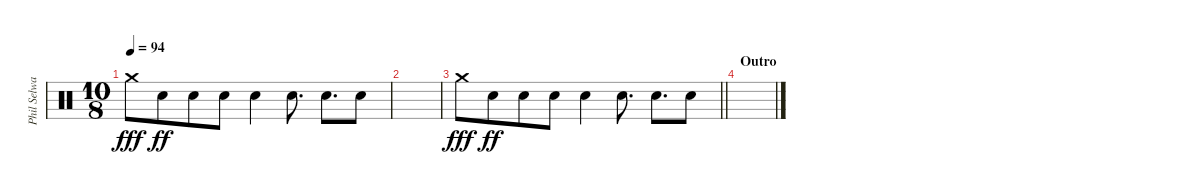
\track ("Phil Selway" "Phil Selwa") {instrument percussion}
\staff {score}
\articulation defaults
\ts (10 8)
\tempo 94
\clef neutral
\ks c "Crash medium (hit)".8{dy fff} "Hand Clap (hit)".8{dy ff} "Hand Clap (hit)".8 "Hand Clap (hit)".8 "Hand Clap (hit)".4 "Hand Clap (hit)".8{d} "Hand Clap (hit)".8{d} "Hand Clap (hit)".8
|
|
\barLineRight lightlight "Crash medium (hit)".8{dy fff} "Hand Clap (hit)".8{dy ff} "Hand Clap (hit)".8 "Hand Clap (hit)".8 "Hand Clap (hit)".4 "Hand Clap (hit)".8{d} "Hand Clap (hit)".8{d} "Hand Clap (hit)".8
|
\section ("" "Outro")
